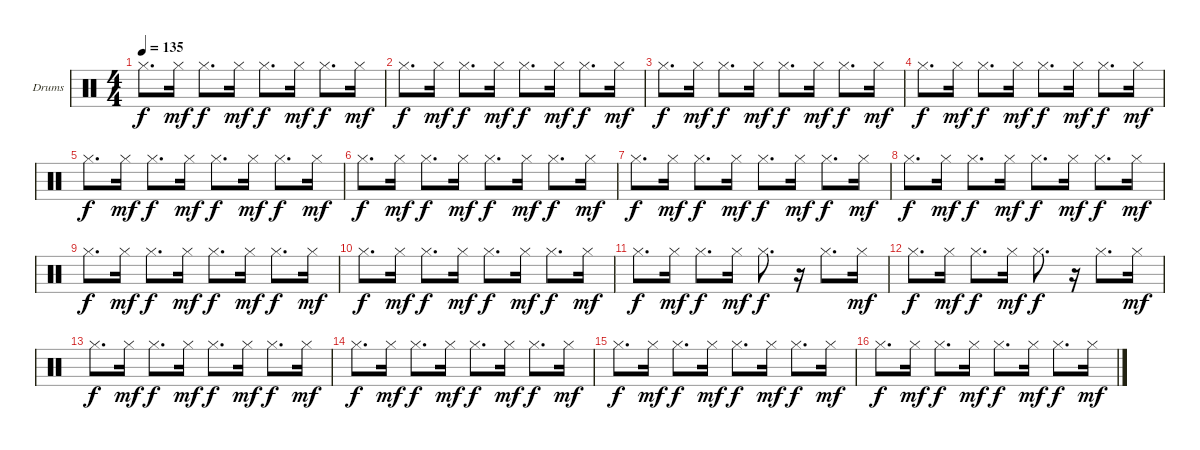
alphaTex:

\bracketExtendMode groupsimilarinstruments
\firstSystemTrackNameOrientation horizontal
\otherSystemsTrackNameOrientation horizontal
\track ("HH" "Drums") {instrument percussion}
\staff {score}
\articulation defaults
\ts (4 4)
\tempo 135
\clef neutral
\ks c "Hi-Hat (closed)".8{d dy f} "Hi-Hat (closed)".16{dy mf} "Hi-Hat (closed)".8{d dy f} "Hi-Hat (closed)".16{dy mf} "Hi-Hat (closed)".8{d dy f} "Hi-Hat (closed)".16{dy mf} "Hi-Hat (closed)".8{d dy f} "Hi-Hat (closed)".16{dy mf}
|
"Hi-Hat (closed)".8{d dy f} "Hi-Hat (closed)".16{dy mf} "Hi-Hat (closed)".8{d dy f} "Hi-Hat (closed)".16{dy mf} "Hi-Hat (closed)".8{d dy f} "Hi-Hat (closed)".16{dy mf} "Hi-Hat (closed)".8{d dy f} "Hi-Hat (closed)".16{dy mf} |
"Hi-Hat (closed)".8{d dy f} "Hi-Hat (closed)".16{dy mf} "Hi-Hat (closed)".8{d dy f} "Hi-Hat (closed)".16{dy mf} "Hi-Hat (closed)".8{d dy f} "Hi-Hat (closed)".16{dy mf} "Hi-Hat (closed)".8{d dy f} "Hi-Hat (closed)".16{dy mf} |
"Hi-Hat (closed)".8{d dy f} "Hi-Hat (closed)".16{dy mf} "Hi-Hat (closed)".8{d dy f} "Hi-Hat (closed)".16{dy mf} "Hi-Hat (closed)".8{d dy f} "Hi-Hat (closed)".16{dy mf} "Hi-Hat (closed)".8{d dy f} "Hi-Hat (closed)".16{dy mf} |
"Hi-Hat (closed)".8{d dy f} "Hi-Hat (closed)".16{dy mf} "Hi-Hat (closed)".8{d dy f} "Hi-Hat (closed)".16{dy mf} "Hi-Hat (closed)".8{d dy f} "Hi-Hat (closed)".16{dy mf} "Hi-Hat (closed)".8{d dy f} "Hi-Hat (closed)".16{dy mf} |
"Hi-Hat (closed)".8{d dy f} "Hi-Hat (closed)".16{dy mf} "Hi-Hat (closed)".8{d dy f} "Hi-Hat (closed)".16{dy mf} "Hi-Hat (closed)".8{d dy f} "Hi-Hat (closed)".16{dy mf} "Hi-Hat (closed)".8{d dy f} "Hi-Hat (closed)".16{dy mf} |
"Hi-Hat (closed)".8{d dy f} "Hi-Hat (closed)".16{dy mf} "Hi-Hat (closed)".8{d dy f} "Hi-Hat (closed)".16{dy mf} "Hi-Hat (closed)".8{d dy f} "Hi-Hat (closed)".16{dy mf} "Hi-Hat (closed)".8{d dy f} "Hi-Hat (closed)".16{dy mf} |
"Hi-Hat (closed)".8{d dy f} "Hi-Hat (closed)".16{dy mf} "Hi-Hat (closed)".8{d dy f} "Hi-Hat (closed)".16{dy mf} "Hi-Hat (closed)".8{d dy f} "Hi-Hat (closed)".16{dy mf} "Hi-Hat (closed)".8{d dy f} "Hi-Hat (closed)".16{dy mf} |
"Hi-Hat (closed)".8{d dy f} "Hi-Hat (closed)".16{dy mf} "Hi-Hat (closed)".8{d dy f} "Hi-Hat (closed)".16{dy mf} "Hi-Hat (closed)".8{d dy f} "Hi-Hat (closed)".16{dy mf} "Hi-Hat (closed)".8{d dy f} "Hi-Hat (closed)".16{dy mf} |
"Hi-Hat (closed)".8{d dy f} "Hi-Hat (closed)".16{dy mf} "Hi-Hat (closed)".8{d dy f} "Hi-Hat (closed)".16{dy mf} "Hi-Hat (closed)".8{d dy f} "Hi-Hat (closed)".16{dy mf} "Hi-Hat (closed)".8{d dy f} "Hi-Hat (closed)".16{dy mf} |
"Hi-Hat (closed)".8{d dy f} "Hi-Hat (closed)".16{dy mf} "Hi-Hat (closed)".8{d dy f} "Hi-Hat (closed)".16{dy mf} "Hi-Hat (closed)".8{d dy f} r.16 "Hi-Hat (closed)".8{d} "Hi-Hat (closed)".16{dy mf} |
"Hi-Hat (closed)".8{d dy f} "Hi-Hat (closed)".16{dy mf} "Hi-Hat (closed)".8{d dy f} "Hi-Hat (closed)".16{dy mf} "Hi-Hat (closed)".8{d dy f} r.16 "Hi-Hat (closed)".8{d} "Hi-Hat (closed)".16{dy mf} |
"Hi-Hat (closed)".8{d dy f} "Hi-Hat (closed)".16{dy mf} "Hi-Hat (closed)".8{d dy f} "Hi-Hat (closed)".16{dy mf} "Hi-Hat (closed)".8{d dy f} "Hi-Hat (closed)".16{dy mf} "Hi-Hat (closed)".8{d dy f} "Hi-Hat (closed)".16{dy mf} |
"Hi-Hat (closed)".8{d dy f} "Hi-Hat (closed)".16{dy mf} "Hi-Hat (closed)".8{d dy f} "Hi-Hat (closed)".16{dy mf} "Hi-Hat (closed)".8{d dy f} "Hi-Hat (closed)".16{dy mf} "Hi-Hat (closed)".8{d dy f} "Hi-Hat (closed)".16{dy mf} |
"Hi-Hat (closed)".8{d dy f} "Hi-Hat (closed)".16{dy mf} "Hi-Hat (closed)".8{d dy f} "Hi-Hat (closed)".16{dy mf} "Hi-Hat (closed)".8{d dy f} "Hi-Hat (closed)".16{dy mf} "Hi-Hat (closed)".8{d dy f} "Hi-Hat (closed)".16{dy mf} |
"Hi-Hat (closed)".8{d dy f} "Hi-Hat (closed)".16{dy mf} "Hi-Hat (closed)".8{d dy f} "Hi-Hat (closed)".16{dy mf} "Hi-Hat (closed)".8{d dy f} "Hi-Hat (closed)".16{dy mf} "Hi-Hat (closed)".8{d dy f} "Hi-Hat (closed)".16{dy mf}
